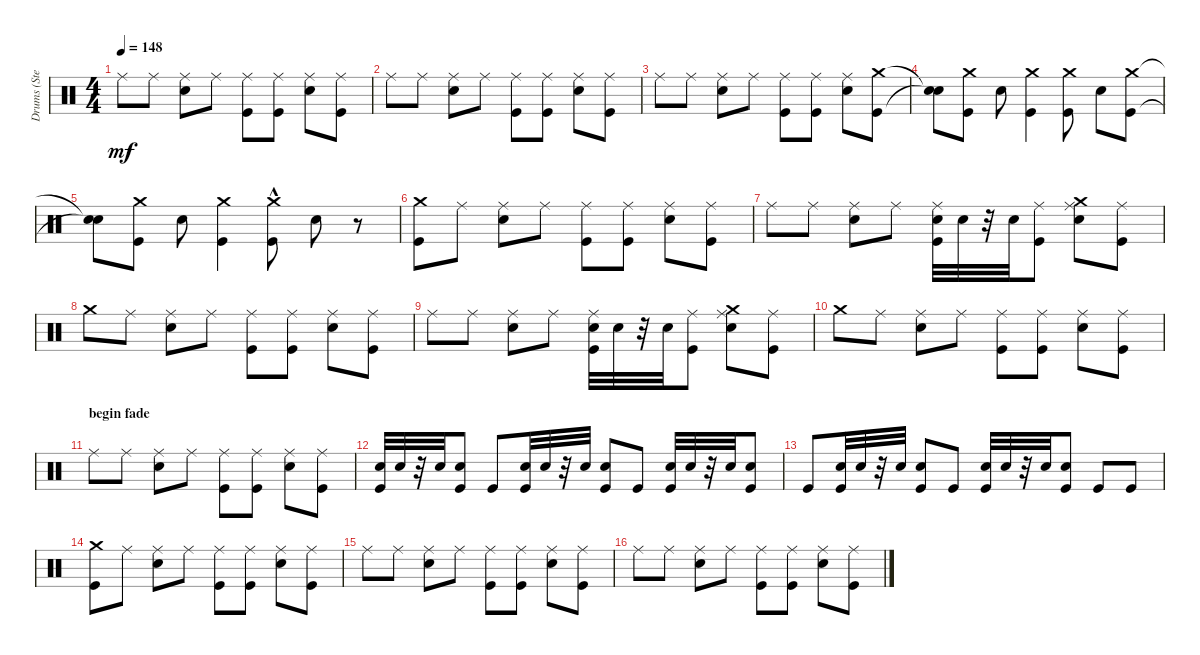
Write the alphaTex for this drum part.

\track ("Drums (Steven)" "Drums (Ste") {instrument percussion}
\staff {score}
\articulation defaults
\ts (4 4)
\tempo 148
\clef neutral
\ks c "Ride (middle)".8{dy mf} "Ride (middle)".8
("Snare (hit) 2" "Ride (middle)").8 "Ride (middle)".8 ("Kick (hit)" "Ride (middle)").8 ("Kick (hit)" "Ride (middle)").8 ("Snare (hit) 2" "Ride (middle)").8 ("Kick (hit)" "Ride (middle)").8 |
"Ride (middle)".8 "Ride (middle)".8 ("Snare (hit) 2" "Ride (middle)").8 "Ride (middle)".8 ("Kick (hit)" "Ride (middle)").8 ("Kick (hit)" "Ride (middle)").8 ("Snare (hit) 2" "Ride (middle)").8 ("Kick (hit)" "Ride (middle)").8 |
"Ride (middle)".8 "Ride (middle)".8 ("Snare (hit) 2" "Ride (middle)").8 "Ride (middle)".8 ("Kick (hit)" "Ride (middle)").8 ("Kick (hit)" "Ride (middle)").8 ("Snare (hit) 2" "Ride (middle)").8 ("Kick (hit)" "Crash medium (hit)").8 |
("Snare (hit)"{t} "Snare (hit)"{t}).8 ("Kick (hit)" "Crash medium (hit)").8 "Snare (hit) 2".8 ("Kick (hit)" "Crash medium (hit)").4 ("Kick (hit)" "Crash medium (hit)").8 "Snare (hit) 2".8 ("Kick (hit)" "Crash medium (hit)").8 |
("Snare (hit)"{t} "Snare (hit)"{t}).8 ("Kick (hit)" "Crash medium (hit)").8 "Snare (hit) 2".8 ("Kick (hit)" "Crash medium (hit)").4 ("Kick (hit)"{hac} "Crash medium (hit)"{hac}).8 "Snare (hit) 2".8 r.8 |
("Kick (hit)" "Crash medium (hit)").8 "Ride (middle)".8 ("Snare (hit) 2" "Ride (middle)").8 "Ride (middle)".8 ("Kick (hit)" "Ride (middle)").8 ("Kick (hit)" "Ride (middle)").8 ("Snare (hit) 2" "Ride (middle)").8 ("Kick (hit)" "Ride (middle)").8 |
"Ride (middle)".8 "Ride (middle)".8 ("Snare (hit) 2" "Ride (middle)").8 "Ride (middle)".8 ("Kick (hit)" "Ride (middle)" "Snare (hit) 2").32 "Snare (hit) 2".32 r.32 "Snare (hit) 2".32 ("Kick (hit)" "Ride (middle)").8 ("Snare (hit) 2" "Ride (middle)" "Crash medium (hit)").8 ("Kick (hit)" "Ride (middle)").8 |
"Crash medium (hit)".8 "Ride (middle)".8 ("Snare (hit) 2" "Ride (middle)").8 "Ride (middle)".8 ("Kick (hit)" "Ride (middle)").8 ("Kick (hit)" "Ride (middle)").8 ("Snare (hit) 2" "Ride (middle)").8 ("Kick (hit)" "Ride (middle)").8 |
"Ride (middle)".8 "Ride (middle)".8 ("Snare (hit) 2" "Ride (middle)").8 "Ride (middle)".8 ("Kick (hit)" "Ride (middle)" "Snare (hit) 2").32 "Snare (hit) 2".32 r.32 "Snare (hit) 2".32 ("Kick (hit)" "Ride (middle)").8 ("Snare (hit) 2" "Ride (middle)" "Crash medium (hit)").8 ("Kick (hit)" "Ride (middle)").8 |
"Crash medium (hit)".8 "Ride (middle)".8 ("Snare (hit) 2" "Ride (middle)").8 "Ride (middle)".8 ("Kick (hit)" "Ride (middle)").8 ("Kick (hit)" "Ride (middle)").8 ("Snare (hit) 2" "Ride (middle)").8 ("Kick (hit)" "Ride (middle)").8 |
\section ("" "begin fade")
"Ride (middle)".8{volume 9} "Ride (middle)".8 ("Snare (hit) 2" "Ride (middle)").8 "Ride (middle)".8 ("Kick (hit)" "Ride (middle)").8 ("Kick (hit)" "Ride (middle)").8 ("Snare (hit) 2" "Ride (middle)").8 ("Kick (hit)" "Ride (middle)").8 |
("Snare (hit) 2" "Kick (hit)").32 "Snare (hit) 2".32 r.32 "Snare (hit) 2".32 ("Snare (hit) 2" "Kick (hit)").8 "Kick (hit)".8 ("Snare (hit) 2" "Kick (hit)").32 "Snare (hit) 2".32 r.32 "Snare (hit) 2".32 ("Snare (hit) 2" "Kick (hit)").8 "Kick (hit)".8 ("Snare (hit) 2" "Kick (hit)").32 "Snare (hit) 2".32 r.32 "Snare (hit) 2".32 ("Snare (hit) 2" "Kick (hit)").8 |
"Kick (hit)".8 ("Snare (hit) 2" "Kick (hit)").32 "Snare (hit) 2".32 r.32 "Snare (hit) 2".32 ("Snare (hit) 2" "Kick (hit)").8 "Kick (hit)".8 ("Snare (hit) 2" "Kick (hit)").32 "Snare (hit) 2".32 r.32 "Snare (hit) 2".32 ("Snare (hit) 2" "Kick (hit)").8 "Kick (hit)".8 "Kick (hit)".8 |
("Kick (hit)" "Crash medium (hit)").8{volume 3} "Ride (middle)".8 ("Snare (hit) 2" "Ride (middle)").8 "Ride (middle)".8 ("Kick (hit)" "Ride (middle)").8 ("Kick (hit)" "Ride (middle)").8 ("Snare (hit) 2" "Ride (middle)").8 ("Kick (hit)" "Ride (middle)").8 |
"Ride (middle)".8 "Ride (middle)".8 ("Snare (hit) 2" "Ride (middle)").8 "Ride (middle)".8 ("Kick (hit)" "Ride (middle)").8 ("Kick (hit)" "Ride (middle)").8 ("Snare (hit) 2" "Ride (middle)").8 ("Kick (hit)" "Ride (middle)").8 |
"Ride (middle)".8 "Ride (middle)".8 ("Snare (hit) 2" "Ride (middle)").8 "Ride (middle)".8 ("Kick (hit)" "Ride (middle)").8 ("Kick (hit)" "Ride (middle)").8 ("Snare (hit) 2" "Ride (middle)").8 ("Kick (hit)" "Ride (middle)").8
